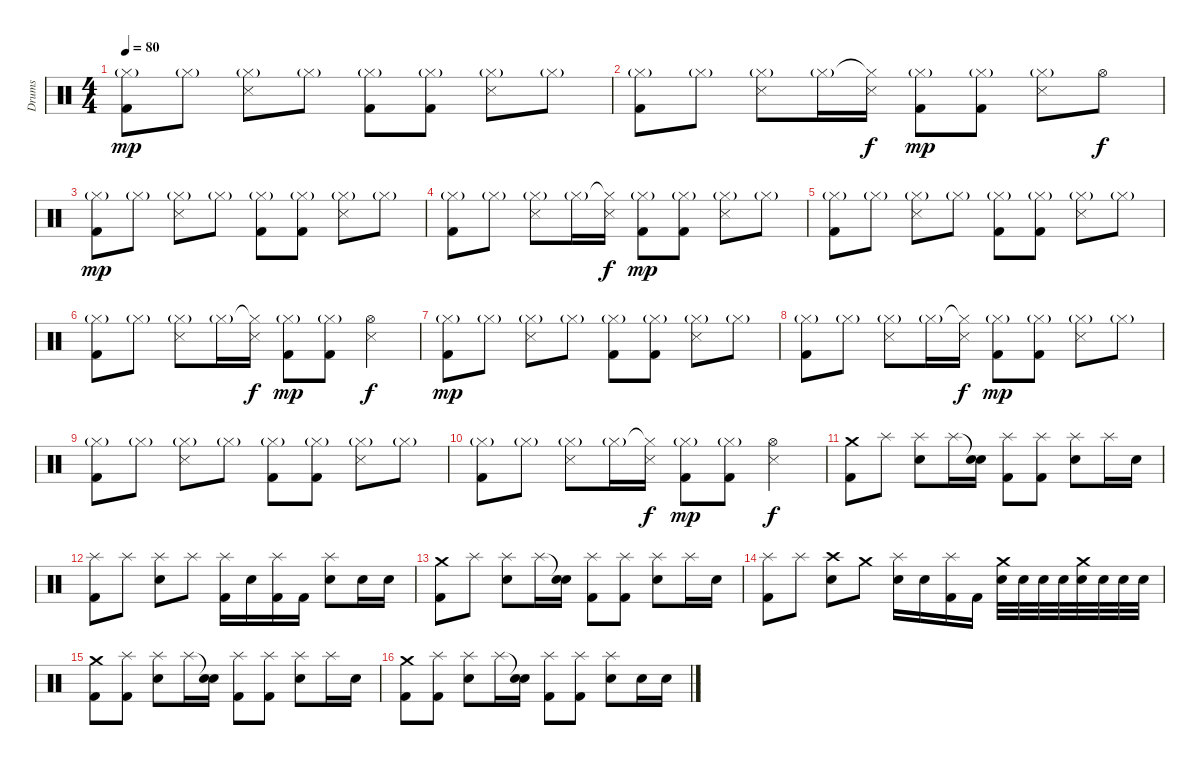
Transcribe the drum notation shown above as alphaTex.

\track ("Drums" "Drums") {instrument percussion}
\staff {score}
\articulation defaults
\ts (4 4)
\tempo 80
\clef neutral
\ks c
("Hi-Hat (closed)"{g} "Kick (hit) 2").8{dy mp} "Hi-Hat (closed)"{g}.8 ("Hi-Hat (closed)"{g} "Snare (side stick) 3").8 "Hi-Hat (closed)"{g}.8 ("Hi-Hat (closed)"{g} "Kick (hit) 2").8 ("Hi-Hat (closed)"{g} "Kick (hit) 2").8 ("Hi-Hat (closed)"{g} "Snare (side stick) 3").8 "Hi-Hat (closed)"{g}.8 |
("Hi-Hat (closed)"{g} "Kick (hit) 2").8 "Hi-Hat (closed)"{g}.8 ("Hi-Hat (closed)"{g} "Snare (side stick) 3").8 "Hi-Hat (closed)"{g}.16 ("Hi-Hat (closed)"{t} "Snare (side stick) 3").16{dy f} ("Hi-Hat (closed)"{g} "Kick (hit) 2").8{dy mp} ("Hi-Hat (closed)"{g} "Kick (hit) 2").8 ("Hi-Hat (closed)"{g} "Snare (side stick) 3").8 "Hi-Hat (open)".8{dy f} |
("Hi-Hat (closed)"{g} "Kick (hit) 2").8{dy mp} "Hi-Hat (closed)"{g}.8 ("Hi-Hat (closed)"{g} "Snare (side stick) 3").8 "Hi-Hat (closed)"{g}.8 ("Hi-Hat (closed)"{g} "Kick (hit) 2").8 ("Hi-Hat (closed)"{g} "Kick (hit) 2").8 ("Hi-Hat (closed)"{g} "Snare (side stick) 3").8 "Hi-Hat (closed)"{g}.8 |
("Hi-Hat (closed)"{g} "Kick (hit) 2").8 "Hi-Hat (closed)"{g}.8 ("Hi-Hat (closed)"{g} "Snare (side stick) 3").8 "Hi-Hat (closed)"{g}.16 ("Hi-Hat (closed)"{t} "Snare (side stick) 3").16{dy f} ("Hi-Hat (closed)"{g} "Kick (hit) 2").8{dy mp} ("Hi-Hat (closed)"{g} "Kick (hit) 2").8 ("Hi-Hat (closed)"{g} "Snare (side stick) 3").8 "Hi-Hat (closed)"{g}.8 |
("Hi-Hat (closed)"{g} "Kick (hit) 2").8 "Hi-Hat (closed)"{g}.8 ("Hi-Hat (closed)"{g} "Snare (side stick) 3").8 "Hi-Hat (closed)"{g}.8 ("Hi-Hat (closed)"{g} "Kick (hit) 2").8 ("Hi-Hat (closed)"{g} "Kick (hit) 2").8 ("Hi-Hat (closed)"{g} "Snare (side stick) 3").8 "Hi-Hat (closed)"{g}.8 |
("Hi-Hat (closed)"{g} "Kick (hit) 2").8 "Hi-Hat (closed)"{g}.8 ("Hi-Hat (closed)"{g} "Snare (side stick) 3").8 "Hi-Hat (closed)"{g}.16 ("Hi-Hat (closed)"{t} "Snare (side stick) 3").16{dy f} ("Hi-Hat (closed)"{g} "Kick (hit) 2").8{dy mp} ("Hi-Hat (closed)"{g} "Kick (hit) 2").8 ("Hi-Hat (open)" "Snare (side stick) 3").4{dy f} |
("Hi-Hat (closed)"{g} "Kick (hit) 2").8{dy mp} "Hi-Hat (closed)"{g}.8 ("Hi-Hat (closed)"{g} "Snare (side stick) 3").8 "Hi-Hat (closed)"{g}.8 ("Hi-Hat (closed)"{g} "Kick (hit) 2").8 ("Hi-Hat (closed)"{g} "Kick (hit) 2").8 ("Hi-Hat (closed)"{g} "Snare (side stick) 3").8 "Hi-Hat (closed)"{g}.8 |
("Hi-Hat (closed)"{g} "Kick (hit) 2").8 "Hi-Hat (closed)"{g}.8 ("Hi-Hat (closed)"{g} "Snare (side stick) 3").8 "Hi-Hat (closed)"{g}.16 ("Hi-Hat (closed)"{t} "Snare (side stick) 3").16{dy f} ("Hi-Hat (closed)"{g} "Kick (hit) 2").8{dy mp} ("Hi-Hat (closed)"{g} "Kick (hit) 2").8 ("Hi-Hat (closed)"{g} "Snare (side stick) 3").8 "Hi-Hat (closed)"{g}.8 |
("Hi-Hat (closed)"{g} "Kick (hit) 2").8 "Hi-Hat (closed)"{g}.8 ("Hi-Hat (closed)"{g} "Snare (side stick) 3").8 "Hi-Hat (closed)"{g}.8 ("Hi-Hat (closed)"{g} "Kick (hit) 2").8 ("Hi-Hat (closed)"{g} "Kick (hit) 2").8 ("Hi-Hat (closed)"{g} "Snare (side stick) 3").8 "Hi-Hat (closed)"{g}.8 |
("Hi-Hat (closed)"{g} "Kick (hit) 2").8 "Hi-Hat (closed)"{g}.8 ("Hi-Hat (closed)"{g} "Snare (side stick) 3").8 "Hi-Hat (closed)"{g}.16 ("Hi-Hat (closed)"{t} "Snare (side stick) 3").16{dy f} ("Hi-Hat (closed)"{g} "Kick (hit) 2").8{dy mp} ("Hi-Hat (closed)"{g} "Kick (hit) 2").8 ("Hi-Hat (open)" "Snare (side stick) 3").4{dy f} |
("Crash medium (hit)" "Kick (hit) 2").8 "Splash (hit)".8 ("Splash (hit)" "Snare (hit) 2").8 "Splash (hit)".16 ("Snare (hit)"{t} "Snare (hit) 2").16 ("Splash (hit)" "Kick (hit) 2").8 ("Splash (hit)" "Kick (hit) 2").8 ("Splash (hit)" "Snare (hit) 2").8 "Splash (hit)".16 "Snare (hit) 2".16 |
("Splash (hit)" "Kick (hit) 2").8 "Splash (hit)".8 ("Splash (hit)" "Snare (hit) 2").8 "Splash (hit)".8 ("Splash (hit)" "Kick (hit) 2").16 "Snare (hit) 2".16 ("Splash (hit)" "Kick (hit) 2").16 "Kick (hit) 2".16 ("Splash (hit)" "Snare (hit) 2").8 "Snare (hit) 2".16 "Snare (hit) 2".16 |
("Crash medium (hit)" "Kick (hit) 2").8 "Splash (hit)".8 ("Splash (hit)" "Snare (hit) 2").8 "Splash (hit)".16 ("Snare (hit)"{t} "Snare (hit) 2").16 ("Splash (hit)" "Kick (hit) 2").8 ("Splash (hit)" "Kick (hit) 2").8 ("Splash (hit)" "Snare (hit) 2").8 "Splash (hit)".16 "Snare (hit) 2".16 |
("Splash (hit)" "Kick (hit) 2").8 "Splash (hit)".8 ("Crash high (hit)" "Snare (hit) 2").8 "Crash medium (hit)".8 ("Splash (hit)" "Snare (hit) 2").16 "Snare (hit) 2".16 ("Splash (hit)" "Kick (hit) 2").16 "Kick (hit) 2".16 ("Crash medium (hit)" "Snare (hit) 2").32 "Snare (hit) 2".32 "Snare (hit) 2".32 "Snare (hit) 2".32 ("Crash medium (hit)" "Snare (hit) 2").32 "Snare (hit) 2".32 "Snare (hit) 2".32 "Snare (hit) 2".32 |
("Crash medium (hit)" "Kick (hit) 2").8 ("Splash (hit)" "Kick (hit) 2").8 ("Splash (hit)" "Snare (hit) 2").8 "Splash (hit)".16 ("Snare (hit)"{t} "Snare (hit) 2").16 ("Splash (hit)" "Kick (hit) 2").8 ("Splash (hit)" "Kick (hit) 2").8 ("Splash (hit)" "Snare (hit) 2").8 "Splash (hit)".16 "Snare (hit) 2".16 |
("Crash medium (hit)" "Kick (hit) 2").8 ("Splash (hit)" "Kick (hit) 2").8 ("Splash (hit)" "Snare (hit) 2").8 "Splash (hit)".16 ("Snare (hit)"{t} "Snare (hit) 2").16 ("Splash (hit)" "Kick (hit) 2").8 ("Splash (hit)" "Kick (hit) 2").8 ("Splash (hit)" "Snare (hit) 2").8 "Snare (hit) 2".16 "Snare (hit) 2".16
